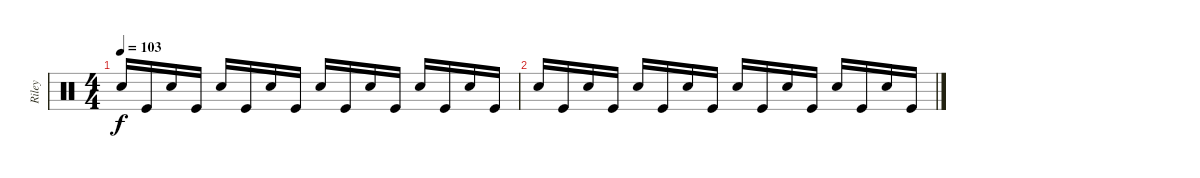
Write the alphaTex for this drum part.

\track ("Riley" "Riley") {instrument percussion}
\staff {score}
\articulation defaults
\ts (4 4)
\tempo 103
\clef neutral
\ks c "Electric Snare (hit)".16{dy f volume 2} "Kick (hit)".16 "Electric Snare (hit)".16 "Kick (hit)".16 "Electric Snare (hit)".16 "Kick (hit)".16 "Electric Snare (hit)".16 "Kick (hit)".16 "Electric Snare (hit)".16 "Kick (hit)".16 "Electric Snare (hit)".16 "Kick (hit)".16 "Electric Snare (hit)".16 "Kick (hit)".16 "Electric Snare (hit)".16 "Kick (hit)".16
|
"Electric Snare (hit)".16{volume 1} "Kick (hit)".16 "Electric Snare (hit)".16 "Kick (hit)".16 "Electric Snare (hit)".16 "Kick (hit)".16 "Electric Snare (hit)".16 "Kick (hit)".16 "Electric Snare (hit)".16 "Kick (hit)".16 "Electric Snare (hit)".16 "Kick (hit)".16 "Electric Snare (hit)".16 "Kick (hit)".16 "Electric Snare (hit)".16 "Kick (hit)".16
